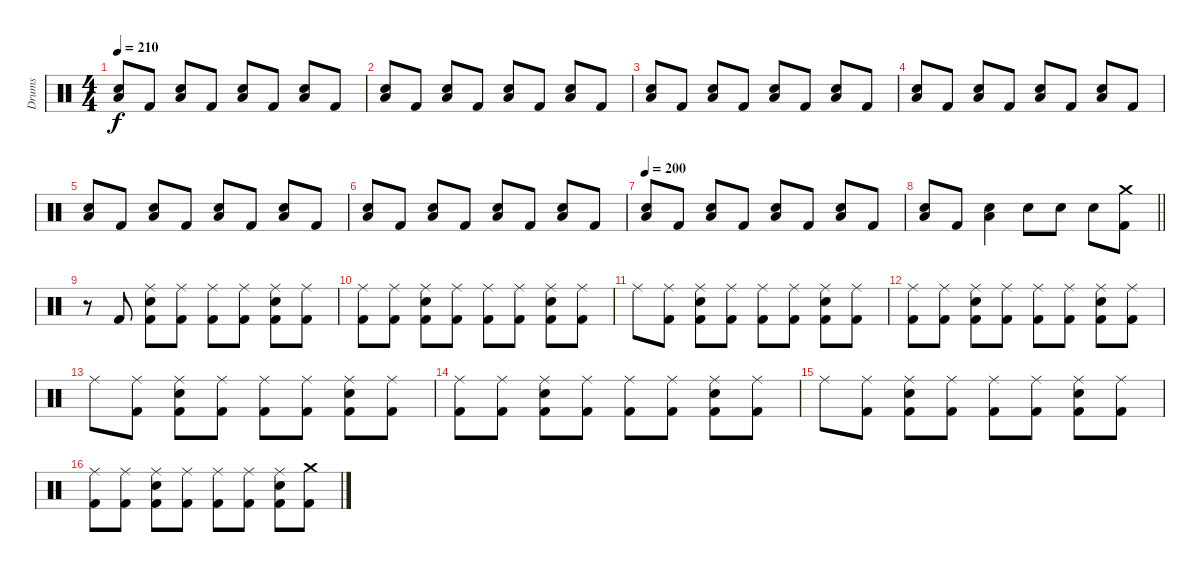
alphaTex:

\track ("Drums" "Drums") {instrument percussion}
\staff {score}
\articulation defaults
\ts (4 4)
\section ("" "")
\tempo 210
\clef neutral
\ks c
("Low Floor Tom (hit)" "Electric Snare (hit)").8{dy f} "Kick (hit) 2".8 ("Low Floor Tom (hit)" "Electric Snare (hit)").8 "Kick (hit) 2".8 ("Low Floor Tom (hit)" "Electric Snare (hit)").8 "Kick (hit) 2".8 ("Low Floor Tom (hit)" "Electric Snare (hit)").8 "Kick (hit) 2".8 |
("Low Floor Tom (hit)" "Electric Snare (hit)").8 "Kick (hit) 2".8 ("Low Floor Tom (hit)" "Electric Snare (hit)").8 "Kick (hit) 2".8 ("Low Floor Tom (hit)" "Electric Snare (hit)").8 "Kick (hit) 2".8 ("Low Floor Tom (hit)" "Electric Snare (hit)").8 "Kick (hit) 2".8 |
("Low Floor Tom (hit)" "Electric Snare (hit)").8 "Kick (hit) 2".8 ("Low Floor Tom (hit)" "Electric Snare (hit)").8 "Kick (hit) 2".8 ("Low Floor Tom (hit)" "Electric Snare (hit)").8 "Kick (hit) 2".8 ("Low Floor Tom (hit)" "Electric Snare (hit)").8 "Kick (hit) 2".8 |
("Low Floor Tom (hit)" "Electric Snare (hit)").8 "Kick (hit) 2".8 ("Low Floor Tom (hit)" "Electric Snare (hit)").8 "Kick (hit) 2".8 ("Low Floor Tom (hit)" "Electric Snare (hit)").8 "Kick (hit) 2".8 ("Low Floor Tom (hit)" "Electric Snare (hit)").8 "Kick (hit) 2".8 |
("Low Floor Tom (hit)" "Electric Snare (hit)").8 "Kick (hit) 2".8 ("Low Floor Tom (hit)" "Electric Snare (hit)").8 "Kick (hit) 2".8 ("Low Floor Tom (hit)" "Electric Snare (hit)").8 "Kick (hit) 2".8 ("Low Floor Tom (hit)" "Electric Snare (hit)").8 "Kick (hit) 2".8 |
("Low Floor Tom (hit)" "Electric Snare (hit)").8 "Kick (hit) 2".8 ("Low Floor Tom (hit)" "Electric Snare (hit)").8 "Kick (hit) 2".8 ("Low Floor Tom (hit)" "Electric Snare (hit)").8 "Kick (hit) 2".8 ("Low Floor Tom (hit)" "Electric Snare (hit)").8 "Kick (hit) 2".8 |
\tempo 200
("Low Floor Tom (hit)" "Electric Snare (hit)").8 "Kick (hit) 2".8 ("Low Floor Tom (hit)" "Electric Snare (hit)").8 "Kick (hit) 2".8 ("Low Floor Tom (hit)" "Electric Snare (hit)").8 "Kick (hit) 2".8 ("Low Floor Tom (hit)" "Electric Snare (hit)").8 "Kick (hit) 2".8 |
\barLineRight lightlight
("Low Floor Tom (hit)" "Electric Snare (hit)").8 "Kick (hit) 2".8 ("Low Floor Tom (hit)" "Electric Snare (hit)").4 "Electric Snare (hit)".8 "Electric Snare (hit)".8 "Electric Snare (hit)".8 ("Crash medium (hit)" "Kick (hit) 2").8 |
\section ("" "")
r.8 "Kick (hit) 2".8 ("Ride (middle)" "Electric Snare (hit)" "Kick (hit) 2").8 ("Ride (middle)" "Kick (hit) 2").8 ("Ride (middle)" "Kick (hit) 2").8 ("Ride (middle)" "Kick (hit) 2").8 ("Ride (middle)" "Electric Snare (hit)" "Kick (hit) 2").8 ("Ride (middle)" "Kick (hit) 2").8 |
("Ride (middle)" "Kick (hit) 2").8 ("Ride (middle)" "Kick (hit) 2").8 ("Ride (middle)" "Electric Snare (hit)" "Kick (hit) 2").8 ("Ride (middle)" "Kick (hit) 2").8 ("Ride (middle)" "Kick (hit) 2").8 ("Ride (middle)" "Kick (hit) 2").8 ("Ride (middle)" "Electric Snare (hit)" "Kick (hit) 2").8 ("Ride (middle)" "Kick (hit) 2").8 |
"Ride (middle)".8 ("Ride (middle)" "Kick (hit) 2").8 ("Ride (middle)" "Electric Snare (hit)" "Kick (hit) 2").8 ("Ride (middle)" "Kick (hit) 2").8 ("Ride (middle)" "Kick (hit) 2").8 ("Ride (middle)" "Kick (hit) 2").8 ("Ride (middle)" "Electric Snare (hit)" "Kick (hit) 2").8 ("Ride (middle)" "Kick (hit) 2").8 |
("Ride (middle)" "Kick (hit) 2").8 ("Ride (middle)" "Kick (hit) 2").8 ("Ride (middle)" "Electric Snare (hit)" "Kick (hit) 2").8 ("Ride (middle)" "Kick (hit) 2").8 ("Ride (middle)" "Kick (hit) 2").8 ("Ride (middle)" "Kick (hit) 2").8 ("Ride (middle)" "Electric Snare (hit)" "Kick (hit) 2").8 ("Ride (middle)" "Kick (hit) 2").8 |
"Ride (middle)".8 ("Ride (middle)" "Kick (hit) 2").8 ("Ride (middle)" "Electric Snare (hit)" "Kick (hit) 2").8 ("Ride (middle)" "Kick (hit) 2").8 ("Ride (middle)" "Kick (hit) 2").8 ("Ride (middle)" "Kick (hit) 2").8 ("Ride (middle)" "Electric Snare (hit)" "Kick (hit) 2").8 ("Ride (middle)" "Kick (hit) 2").8 |
("Ride (middle)" "Kick (hit) 2").8 ("Ride (middle)" "Kick (hit) 2").8 ("Ride (middle)" "Electric Snare (hit)" "Kick (hit) 2").8 ("Ride (middle)" "Kick (hit) 2").8 ("Ride (middle)" "Kick (hit) 2").8 ("Ride (middle)" "Kick (hit) 2").8 ("Ride (middle)" "Electric Snare (hit)" "Kick (hit) 2").8 ("Ride (middle)" "Kick (hit) 2").8 |
"Ride (middle)".8 ("Ride (middle)" "Kick (hit) 2").8 ("Ride (middle)" "Electric Snare (hit)" "Kick (hit) 2").8 ("Ride (middle)" "Kick (hit) 2").8 ("Ride (middle)" "Kick (hit) 2").8 ("Ride (middle)" "Kick (hit) 2").8 ("Ride (middle)" "Electric Snare (hit)" "Kick (hit) 2").8 ("Ride (middle)" "Kick (hit) 2").8 |
("Ride (middle)" "Kick (hit) 2").8 ("Ride (middle)" "Kick (hit) 2").8 ("Ride (middle)" "Electric Snare (hit)" "Kick (hit) 2").8 ("Ride (middle)" "Kick (hit) 2").8 ("Ride (middle)" "Kick (hit) 2").8 ("Ride (middle)" "Kick (hit) 2").8 ("Ride (middle)" "Electric Snare (hit)" "Kick (hit) 2").8 ("Crash medium (hit)" "Kick (hit) 2").8
